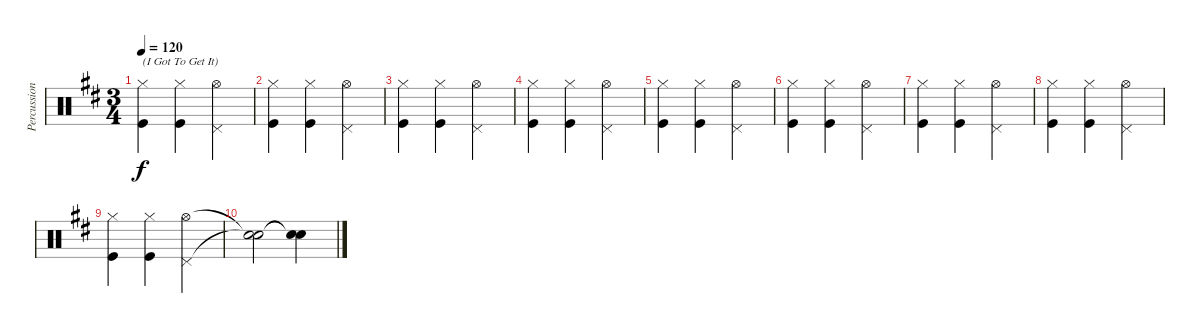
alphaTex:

\track ("Percussion" "Percussion") {instrument percussion}
\staff {score}
\articulation defaults
\ts (3 4)
\tempo 120
\clef neutral
\ks bminor
("Hi-Hat (closed)" "Kick (hit)").4{txt "(I Got To Get It)" dy f} ("Hi-Hat (closed)" "Kick (hit)").4 ("Pedal Hi-Hat (hit)" "Hi-Hat (open)").4 |
("Hi-Hat (closed)" "Kick (hit)").4 ("Hi-Hat (closed)" "Kick (hit)").4 ("Pedal Hi-Hat (hit)" "Hi-Hat (open)").4 |
("Hi-Hat (closed)" "Kick (hit)").4 ("Hi-Hat (closed)" "Kick (hit)").4 ("Pedal Hi-Hat (hit)" "Hi-Hat (open)").4 |
("Hi-Hat (closed)" "Kick (hit)").4 ("Hi-Hat (closed)" "Kick (hit)").4 ("Pedal Hi-Hat (hit)" "Hi-Hat (open)").4 |
("Hi-Hat (closed)" "Kick (hit)").4 ("Hi-Hat (closed)" "Kick (hit)").4 ("Pedal Hi-Hat (hit)" "Hi-Hat (open)").4 |
("Hi-Hat (closed)" "Kick (hit)").4 ("Hi-Hat (closed)" "Kick (hit)").4 ("Pedal Hi-Hat (hit)" "Hi-Hat (open)").4 |
("Hi-Hat (closed)" "Kick (hit)").4 ("Hi-Hat (closed)" "Kick (hit)").4 ("Pedal Hi-Hat (hit)" "Hi-Hat (open)").4 |
("Hi-Hat (closed)" "Kick (hit)").4 ("Hi-Hat (closed)" "Kick (hit)").4 ("Pedal Hi-Hat (hit)" "Hi-Hat (open)").4 |
("Hi-Hat (closed)" "Kick (hit)").4 ("Hi-Hat (closed)" "Kick (hit)").4 ("Pedal Hi-Hat (hit)" "Hi-Hat (open)").4 |
("Snare (hit)"{t} "Snare (hit)"{t}).2 ("Snare (hit)"{t} "Snare (hit)"{t}).4
